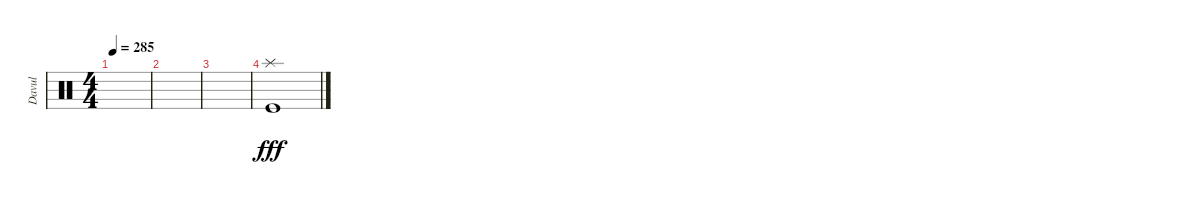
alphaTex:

\track ("Davul" "Davul") {instrument percussion}
\staff {score}
\articulation defaults
\ts (4 4)
\tempo 285
\clef neutral
\ks c
|
|
|
("Kick (hit)" "Splash (hit)").1{dy fff}
